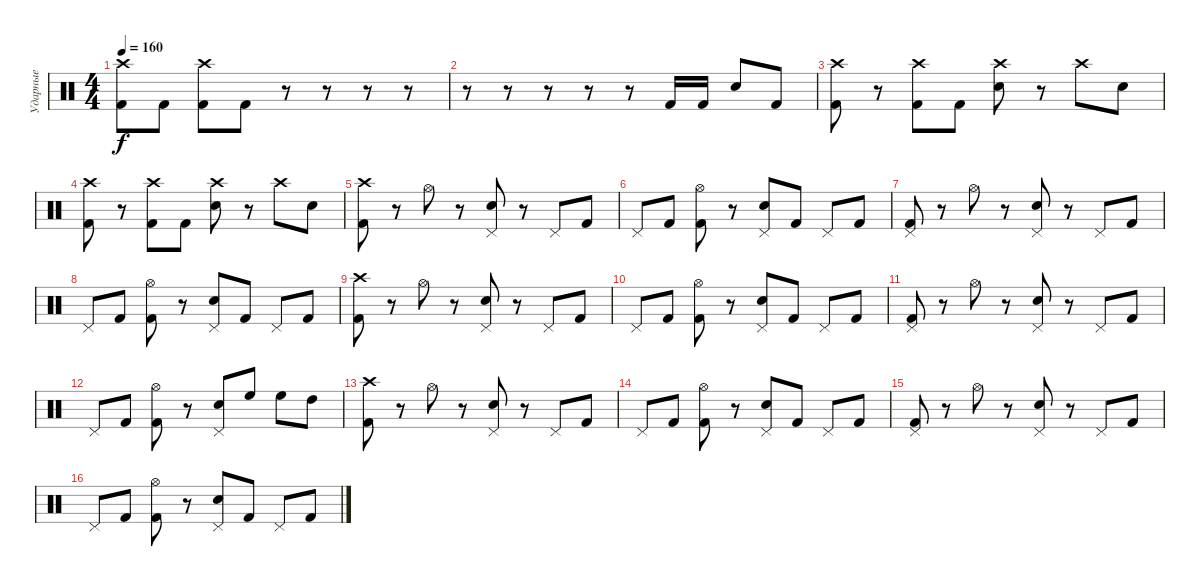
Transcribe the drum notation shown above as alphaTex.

\track ("Ударные" "Ударные") {instrument percussion}
\staff {score}
\articulation defaults
\ts (4 4)
\tempo 160
\clef neutral
\ks c
("Crash high (hit)" "Kick (hit) 2").8{dy f} "Kick (hit) 2".8 ("Crash high (hit)" "Kick (hit) 2").8 "Kick (hit) 2".8 r.8 r.8 r.8 r.8 |
r.8 r.8 r.8 r.8 r.8 "Kick (hit) 2".16 "Kick (hit) 2".16 "Snare (hit) 2".8 "Kick (hit) 2".8 |
("Crash high (hit)" "Kick (hit) 2").8 r.8 ("Crash high (hit)" "Kick (hit) 2").8 "Kick (hit) 2".8 ("Crash high (hit)" "Snare (hit) 2").8 r.8 "Crash high (hit)".8 "Snare (hit) 2".8 |
("Crash high (hit)" "Kick (hit) 2").8 r.8 ("Crash high (hit)" "Kick (hit) 2").8 "Kick (hit) 2".8 ("Crash high (hit)" "Snare (hit) 2").8 r.8 "Crash high (hit)".8 "Snare (hit) 2".8 |
("Crash high (hit)" "Kick (hit) 2").8 r.8 "Hi-Hat (open)".8 r.8 ("Pedal Hi-Hat (hit)" "Snare (hit) 2").8 r.8 "Pedal Hi-Hat (hit)".8 "Kick (hit) 2".8 |
"Pedal Hi-Hat (hit)".8 "Kick (hit) 2".8 ("Hi-Hat (open)" "Kick (hit) 2").8 r.8 ("Pedal Hi-Hat (hit)" "Snare (hit) 2").8 "Kick (hit) 2".8 "Pedal Hi-Hat (hit)".8 "Kick (hit) 2".8 |
("Pedal Hi-Hat (hit)" "Kick (hit) 2").8 r.8 "Hi-Hat (open)".8 r.8 ("Pedal Hi-Hat (hit)" "Snare (hit) 2").8 r.8 "Pedal Hi-Hat (hit)".8 "Kick (hit) 2".8 |
"Pedal Hi-Hat (hit)".8 "Kick (hit) 2".8 ("Hi-Hat (open)" "Kick (hit) 2").8 r.8 ("Pedal Hi-Hat (hit)" "Snare (hit) 2").8 "Kick (hit) 2".8 "Pedal Hi-Hat (hit)".8 "Kick (hit) 2".8 |
("Crash high (hit)" "Kick (hit) 2").8 r.8 "Hi-Hat (open)".8 r.8 ("Pedal Hi-Hat (hit)" "Snare (hit) 2").8 r.8 "Pedal Hi-Hat (hit)".8 "Kick (hit) 2".8 |
"Pedal Hi-Hat (hit)".8 "Kick (hit) 2".8 ("Hi-Hat (open)" "Kick (hit) 2").8 r.8 ("Pedal Hi-Hat (hit)" "Snare (hit) 2").8 "Kick (hit) 2".8 "Pedal Hi-Hat (hit)".8 "Kick (hit) 2".8 |
("Pedal Hi-Hat (hit)" "Kick (hit) 2").8 r.8 "Hi-Hat (open)".8 r.8 ("Pedal Hi-Hat (hit)" "Snare (hit) 2").8 r.8 "Pedal Hi-Hat (hit)".8 "Kick (hit) 2".8 |
"Pedal Hi-Hat (hit)".8 "Kick (hit) 2".8 ("Hi-Hat (open)" "Kick (hit) 2").8 r.8 ("Pedal Hi-Hat (hit)" "Snare (hit) 2").8 "High Floor Tom (hit)".8 "High Floor Tom (hit)".8 "High Tom (hit)".8 |
("Crash high (hit)" "Kick (hit) 2").8 r.8 "Hi-Hat (open)".8 r.8 ("Pedal Hi-Hat (hit)" "Snare (hit) 2").8 r.8 "Pedal Hi-Hat (hit)".8 "Kick (hit) 2".8 |
"Pedal Hi-Hat (hit)".8 "Kick (hit) 2".8 ("Hi-Hat (open)" "Kick (hit) 2").8 r.8 ("Pedal Hi-Hat (hit)" "Snare (hit) 2").8 "Kick (hit) 2".8 "Pedal Hi-Hat (hit)".8 "Kick (hit) 2".8 |
("Pedal Hi-Hat (hit)" "Kick (hit) 2").8 r.8 "Hi-Hat (open)".8 r.8 ("Pedal Hi-Hat (hit)" "Snare (hit) 2").8 r.8 "Pedal Hi-Hat (hit)".8 "Kick (hit) 2".8 |
"Pedal Hi-Hat (hit)".8 "Kick (hit) 2".8 ("Hi-Hat (open)" "Kick (hit) 2").8 r.8 ("Pedal Hi-Hat (hit)" "Snare (hit) 2").8 "Kick (hit) 2".8 "Pedal Hi-Hat (hit)".8 "Kick (hit) 2".8
